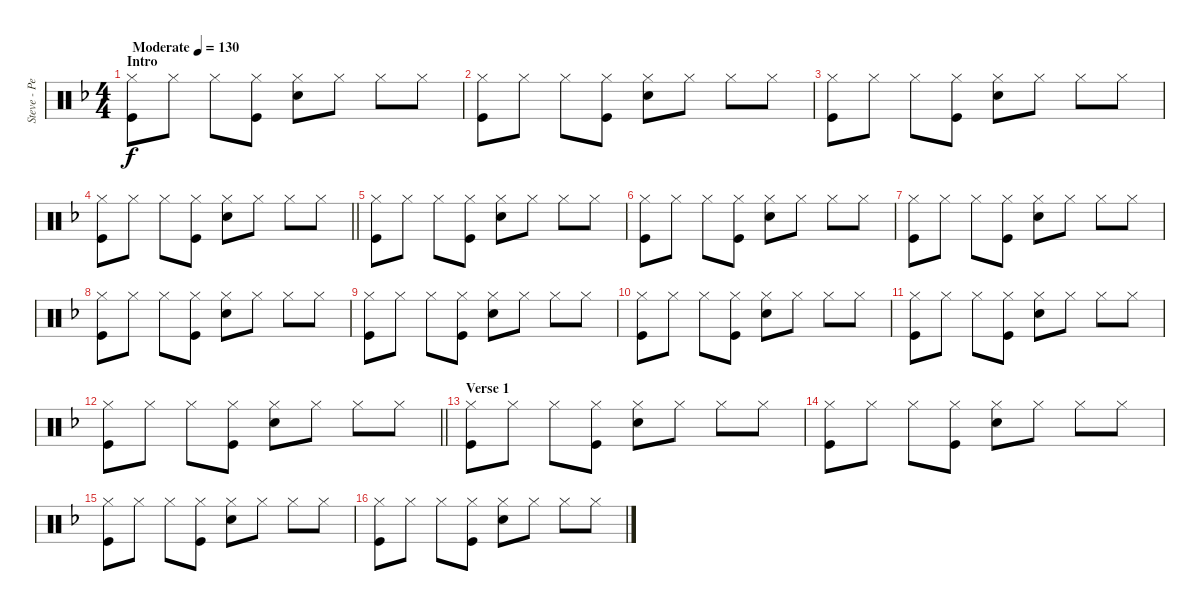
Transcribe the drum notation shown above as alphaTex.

\track ("Steve - Percussion" "Steve - Pe") {instrument percussion}
\staff {score}
\articulation defaults
\ts (4 4)
\section ("" "Intro")
\tempo (130 "Moderate")
\clef neutral
\ks f
("Kick (hit)" "Hi-Hat (closed)").8{dy f} "Hi-Hat (closed)".8 "Hi-Hat (closed)".8 ("Kick (hit)" "Hi-Hat (closed)").8 ("Snare (hit) 2" "Hi-Hat (closed)").8 "Hi-Hat (closed)".8 "Hi-Hat (closed)".8 "Hi-Hat (closed)".8 |
("Kick (hit)" "Hi-Hat (closed)").8 "Hi-Hat (closed)".8 "Hi-Hat (closed)".8 ("Kick (hit)" "Hi-Hat (closed)").8 ("Snare (hit) 2" "Hi-Hat (closed)").8 "Hi-Hat (closed)".8 "Hi-Hat (closed)".8 "Hi-Hat (closed)".8 |
("Kick (hit)" "Hi-Hat (closed)").8 "Hi-Hat (closed)".8 "Hi-Hat (closed)".8 ("Kick (hit)" "Hi-Hat (closed)").8 ("Snare (hit) 2" "Hi-Hat (closed)").8 "Hi-Hat (closed)".8 "Hi-Hat (closed)".8 "Hi-Hat (closed)".8 |
\barLineRight lightlight
("Kick (hit)" "Hi-Hat (closed)").8 "Hi-Hat (closed)".8 "Hi-Hat (closed)".8 ("Kick (hit)" "Hi-Hat (closed)").8 ("Snare (hit) 2" "Hi-Hat (closed)").8 "Hi-Hat (closed)".8 "Hi-Hat (closed)".8 "Hi-Hat (closed)".8 |
("Kick (hit)" "Hi-Hat (closed)").8 "Hi-Hat (closed)".8 "Hi-Hat (closed)".8 ("Kick (hit)" "Hi-Hat (closed)").8 ("Snare (hit) 2" "Hi-Hat (closed)").8 "Hi-Hat (closed)".8 "Hi-Hat (closed)".8 "Hi-Hat (closed)".8 |
("Kick (hit)" "Hi-Hat (closed)").8 "Hi-Hat (closed)".8 "Hi-Hat (closed)".8 ("Kick (hit)" "Hi-Hat (closed)").8 ("Snare (hit) 2" "Hi-Hat (closed)").8 "Hi-Hat (closed)".8 "Hi-Hat (closed)".8 "Hi-Hat (closed)".8 |
("Kick (hit)" "Hi-Hat (closed)").8 "Hi-Hat (closed)".8 "Hi-Hat (closed)".8 ("Kick (hit)" "Hi-Hat (closed)").8 ("Snare (hit) 2" "Hi-Hat (closed)").8 "Hi-Hat (closed)".8 "Hi-Hat (closed)".8 "Hi-Hat (closed)".8 |
("Kick (hit)" "Hi-Hat (closed)").8 "Hi-Hat (closed)".8 "Hi-Hat (closed)".8 ("Kick (hit)" "Hi-Hat (closed)").8 ("Snare (hit) 2" "Hi-Hat (closed)").8 "Hi-Hat (closed)".8 "Hi-Hat (closed)".8 "Hi-Hat (closed)".8 |
("Kick (hit)" "Hi-Hat (closed)").8 "Hi-Hat (closed)".8 "Hi-Hat (closed)".8 ("Kick (hit)" "Hi-Hat (closed)").8 ("Snare (hit) 2" "Hi-Hat (closed)").8 "Hi-Hat (closed)".8 "Hi-Hat (closed)".8 "Hi-Hat (closed)".8 |
("Kick (hit)" "Hi-Hat (closed)").8 "Hi-Hat (closed)".8 "Hi-Hat (closed)".8 ("Kick (hit)" "Hi-Hat (closed)").8 ("Snare (hit) 2" "Hi-Hat (closed)").8 "Hi-Hat (closed)".8 "Hi-Hat (closed)".8 "Hi-Hat (closed)".8 |
("Kick (hit)" "Hi-Hat (closed)").8 "Hi-Hat (closed)".8 "Hi-Hat (closed)".8 ("Kick (hit)" "Hi-Hat (closed)").8 ("Snare (hit) 2" "Hi-Hat (closed)").8 "Hi-Hat (closed)".8 "Hi-Hat (closed)".8 "Hi-Hat (closed)".8 |
\barLineRight lightlight
("Kick (hit)" "Hi-Hat (closed)").8 "Hi-Hat (closed)".8 "Hi-Hat (closed)".8 ("Kick (hit)" "Hi-Hat (closed)").8 ("Snare (hit) 2" "Hi-Hat (closed)").8 "Hi-Hat (closed)".8 "Hi-Hat (closed)".8 "Hi-Hat (closed)".8 |
\section ("" "Verse 1")
("Kick (hit)" "Hi-Hat (closed)").8 "Hi-Hat (closed)".8 "Hi-Hat (closed)".8 ("Kick (hit)" "Hi-Hat (closed)").8 ("Snare (hit) 2" "Hi-Hat (closed)").8 "Hi-Hat (closed)".8 "Hi-Hat (closed)".8 "Hi-Hat (closed)".8 |
("Kick (hit)" "Hi-Hat (closed)").8 "Hi-Hat (closed)".8 "Hi-Hat (closed)".8 ("Kick (hit)" "Hi-Hat (closed)").8 ("Snare (hit) 2" "Hi-Hat (closed)").8 "Hi-Hat (closed)".8 "Hi-Hat (closed)".8 "Hi-Hat (closed)".8 |
("Kick (hit)" "Hi-Hat (closed)").8 "Hi-Hat (closed)".8 "Hi-Hat (closed)".8 ("Kick (hit)" "Hi-Hat (closed)").8 ("Snare (hit) 2" "Hi-Hat (closed)").8 "Hi-Hat (closed)".8 "Hi-Hat (closed)".8 "Hi-Hat (closed)".8 |
("Kick (hit)" "Hi-Hat (closed)").8 "Hi-Hat (closed)".8 "Hi-Hat (closed)".8 ("Kick (hit)" "Hi-Hat (closed)").8 ("Snare (hit) 2" "Hi-Hat (closed)").8 "Hi-Hat (closed)".8 "Hi-Hat (closed)".8 "Hi-Hat (closed)".8
